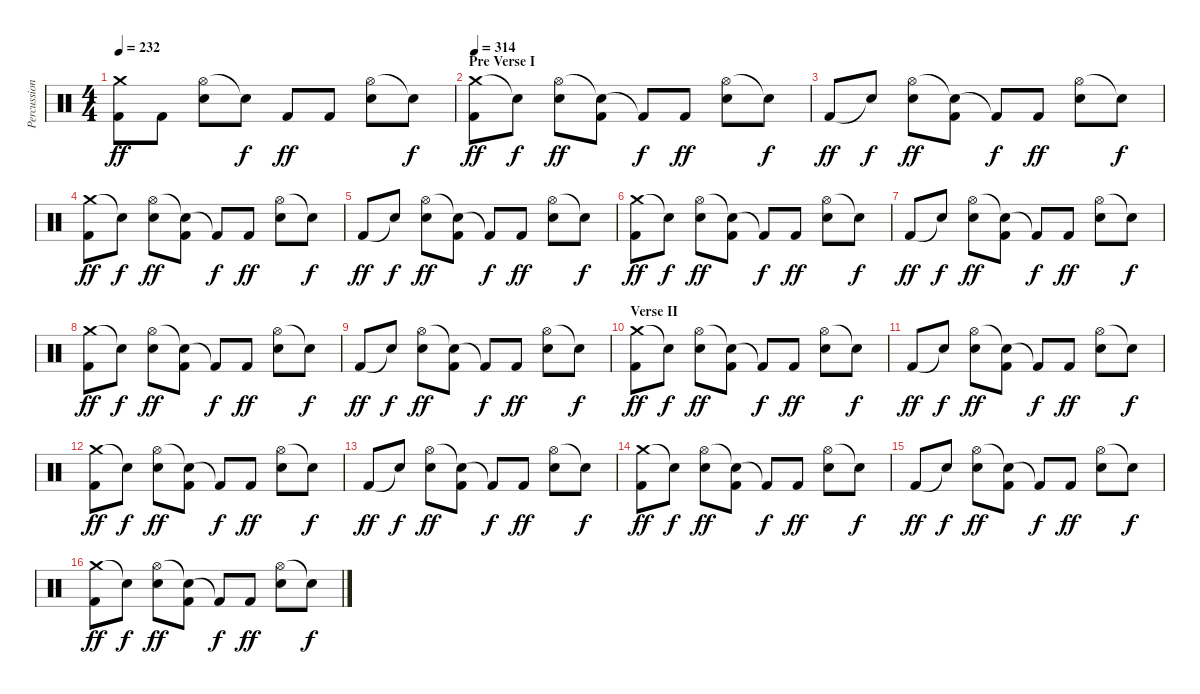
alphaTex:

\track ("Percussion" "Percussion") {instrument percussion}
\staff {score}
\articulation defaults
\ts (4 4)
\tempo 232
\clef neutral
\ks c
("Crash medium (hit)" "Kick (hit) 2").8{dy ff} "Kick (hit) 2".8 ("Hi-Hat (open)" "Snare (hit) 2").8 "Snare (hit)"{t}.8{dy f} "Kick (hit) 2".8{dy ff} "Kick (hit) 2".8 ("Hi-Hat (open)" "Snare (hit) 2").8 "Snare (hit)"{t}.8{dy f} |
\section ("" "Pre Verse I")
\tempo 314
("Crash medium (hit)" "Kick (hit) 2").8{dy ff} "Snare (hit)"{t}.8{dy f} ("Hi-Hat (open)" "Snare (hit) 2").8{dy ff} ("Snare (hit)"{t} "Kick (hit) 2").8 "Kick (hit) 2"{t}.8{dy f} "Kick (hit) 2".8{dy ff} ("Hi-Hat (open)" "Snare (hit) 2").8 "Snare (hit)"{t}.8{dy f} |
"Kick (hit) 2".8{dy ff} "Snare (hit)"{t}.8{dy f} ("Hi-Hat (open)" "Snare (hit) 2").8{dy ff} ("Snare (hit)"{t} "Kick (hit) 2").8 "Kick (hit) 2"{t}.8{dy f} "Kick (hit) 2".8{dy ff} ("Hi-Hat (open)" "Snare (hit) 2").8 "Snare (hit)"{t}.8{dy f} |
("Crash medium (hit)" "Kick (hit) 2").8{dy ff} "Snare (hit)"{t}.8{dy f} ("Hi-Hat (open)" "Snare (hit) 2").8{dy ff} ("Snare (hit)"{t} "Kick (hit) 2").8 "Kick (hit) 2"{t}.8{dy f} "Kick (hit) 2".8{dy ff} ("Hi-Hat (open)" "Snare (hit) 2").8 "Snare (hit)"{t}.8{dy f} |
"Kick (hit) 2".8{dy ff} "Snare (hit)"{t}.8{dy f} ("Hi-Hat (open)" "Snare (hit) 2").8{dy ff} ("Snare (hit)"{t} "Kick (hit) 2").8 "Kick (hit) 2"{t}.8{dy f} "Kick (hit) 2".8{dy ff} ("Hi-Hat (open)" "Snare (hit) 2").8 "Snare (hit)"{t}.8{dy f} |
("Crash medium (hit)" "Kick (hit) 2").8{dy ff} "Snare (hit)"{t}.8{dy f} ("Hi-Hat (open)" "Snare (hit) 2").8{dy ff} ("Snare (hit)"{t} "Kick (hit) 2").8 "Kick (hit) 2"{t}.8{dy f} "Kick (hit) 2".8{dy ff} ("Hi-Hat (open)" "Snare (hit) 2").8 "Snare (hit)"{t}.8{dy f} |
"Kick (hit) 2".8{dy ff} "Snare (hit)"{t}.8{dy f} ("Hi-Hat (open)" "Snare (hit) 2").8{dy ff} ("Snare (hit)"{t} "Kick (hit) 2").8 "Kick (hit) 2"{t}.8{dy f} "Kick (hit) 2".8{dy ff} ("Hi-Hat (open)" "Snare (hit) 2").8 "Snare (hit)"{t}.8{dy f} |
("Crash medium (hit)" "Kick (hit) 2").8{dy ff} "Snare (hit)"{t}.8{dy f} ("Hi-Hat (open)" "Snare (hit) 2").8{dy ff} ("Snare (hit)"{t} "Kick (hit) 2").8 "Kick (hit) 2"{t}.8{dy f} "Kick (hit) 2".8{dy ff} ("Hi-Hat (open)" "Snare (hit) 2").8 "Snare (hit)"{t}.8{dy f} |
"Kick (hit) 2".8{dy ff} "Snare (hit)"{t}.8{dy f} ("Hi-Hat (open)" "Snare (hit) 2").8{dy ff} ("Snare (hit)"{t} "Kick (hit) 2").8 "Kick (hit) 2"{t}.8{dy f} "Kick (hit) 2".8{dy ff} ("Hi-Hat (open)" "Snare (hit) 2").8 "Snare (hit)"{t}.8{dy f} |
\section ("" "Verse II")
("Crash medium (hit)" "Kick (hit) 2").8{dy ff} "Snare (hit)"{t}.8{dy f} ("Hi-Hat (open)" "Snare (hit) 2").8{dy ff} ("Snare (hit)"{t} "Kick (hit) 2").8 "Kick (hit) 2"{t}.8{dy f} "Kick (hit) 2".8{dy ff} ("Hi-Hat (open)" "Snare (hit) 2").8 "Snare (hit)"{t}.8{dy f} |
"Kick (hit) 2".8{dy ff} "Snare (hit)"{t}.8{dy f} ("Hi-Hat (open)" "Snare (hit) 2").8{dy ff} ("Snare (hit)"{t} "Kick (hit) 2").8 "Kick (hit) 2"{t}.8{dy f} "Kick (hit) 2".8{dy ff} ("Hi-Hat (open)" "Snare (hit) 2").8 "Snare (hit)"{t}.8{dy f} |
("Crash medium (hit)" "Kick (hit) 2").8{dy ff} "Snare (hit)"{t}.8{dy f} ("Hi-Hat (open)" "Snare (hit) 2").8{dy ff} ("Snare (hit)"{t} "Kick (hit) 2").8 "Kick (hit) 2"{t}.8{dy f} "Kick (hit) 2".8{dy ff} ("Hi-Hat (open)" "Snare (hit) 2").8 "Snare (hit)"{t}.8{dy f} |
"Kick (hit) 2".8{dy ff} "Snare (hit)"{t}.8{dy f} ("Hi-Hat (open)" "Snare (hit) 2").8{dy ff} ("Snare (hit)"{t} "Kick (hit) 2").8 "Kick (hit) 2"{t}.8{dy f} "Kick (hit) 2".8{dy ff} ("Hi-Hat (open)" "Snare (hit) 2").8 "Snare (hit)"{t}.8{dy f} |
("Crash medium (hit)" "Kick (hit) 2").8{dy ff} "Snare (hit)"{t}.8{dy f} ("Hi-Hat (open)" "Snare (hit) 2").8{dy ff} ("Snare (hit)"{t} "Kick (hit) 2").8 "Kick (hit) 2"{t}.8{dy f} "Kick (hit) 2".8{dy ff} ("Hi-Hat (open)" "Snare (hit) 2").8 "Snare (hit)"{t}.8{dy f} |
"Kick (hit) 2".8{dy ff} "Snare (hit)"{t}.8{dy f} ("Hi-Hat (open)" "Snare (hit) 2").8{dy ff} ("Snare (hit)"{t} "Kick (hit) 2").8 "Kick (hit) 2"{t}.8{dy f} "Kick (hit) 2".8{dy ff} ("Hi-Hat (open)" "Snare (hit) 2").8 "Snare (hit)"{t}.8{dy f} |
("Crash medium (hit)" "Kick (hit) 2").8{dy ff} "Snare (hit)"{t}.8{dy f} ("Hi-Hat (open)" "Snare (hit) 2").8{dy ff} ("Snare (hit)"{t} "Kick (hit) 2").8 "Kick (hit) 2"{t}.8{dy f} "Kick (hit) 2".8{dy ff} ("Hi-Hat (open)" "Snare (hit) 2").8 "Snare (hit)"{t}.8{dy f}
